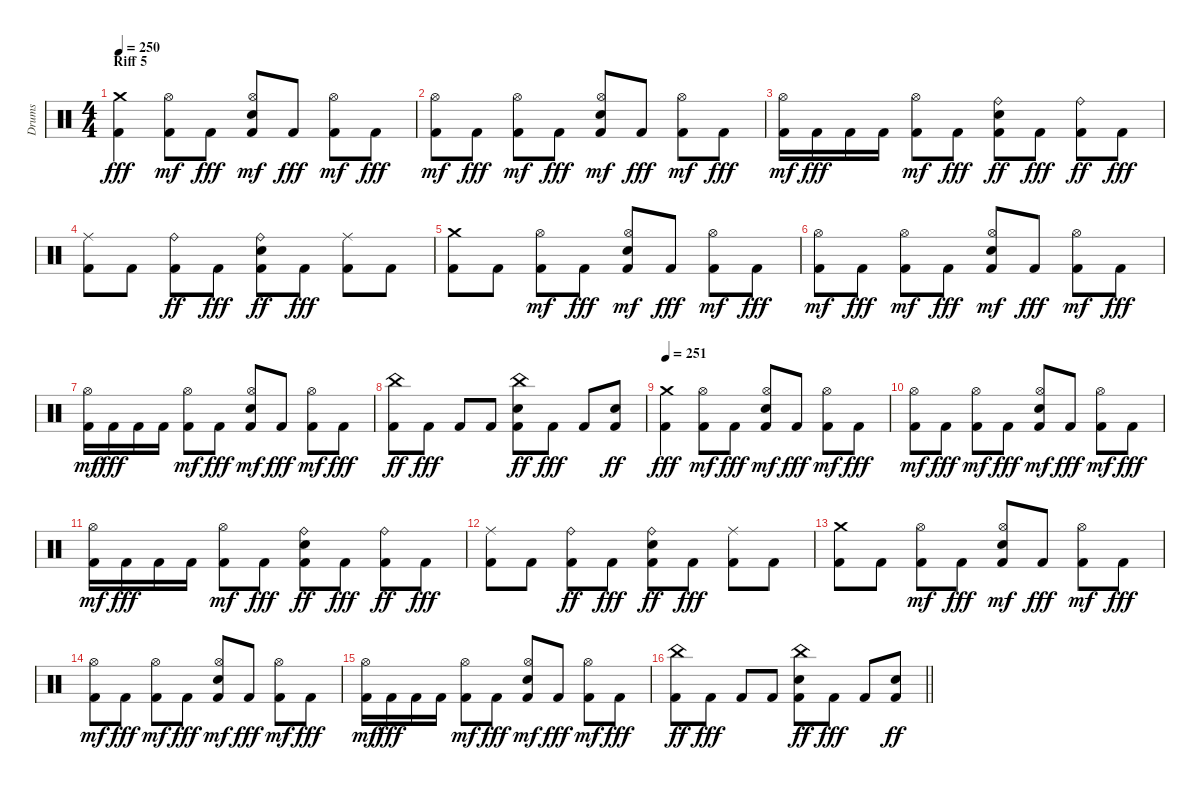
\track ("Drums" "Drums") {instrument percussion}
\staff {score}
\articulation defaults
\ts (4 4)
\section ("" "Riff 5")
\tempo 250
\clef neutral
\ks c
("Kick (hit) 2" "Crash medium (hit)").4{dy fff} ("Kick (hit) 2" "Hi-Hat (open)").8{dy mf} "Kick (hit) 2".8{dy fff} ("Kick (hit) 2" "Snare (hit) 2" "Hi-Hat (open)").8{dy mf} "Kick (hit) 2".8{dy fff} ("Kick (hit) 2" "Hi-Hat (open)").8{dy mf} "Kick (hit) 2".8{dy fff} |
("Kick (hit) 2" "Hi-Hat (open)").8{dy mf} "Kick (hit) 2".8{dy fff} ("Kick (hit) 2" "Hi-Hat (open)").8{dy mf} "Kick (hit) 2".8{dy fff} ("Kick (hit) 2" "Snare (hit) 2" "Hi-Hat (open)").8{dy mf} "Kick (hit) 2".8{dy fff} ("Kick (hit) 2" "Hi-Hat (open)").8{dy mf} "Kick (hit) 2".8{dy fff} |
("Kick (hit) 2" "Hi-Hat (open)").16{dy mf} "Kick (hit) 2".16{dy fff} "Kick (hit) 2".16 "Kick (hit) 2".16 ("Kick (hit) 2" "Hi-Hat (open)").8{dy mf} "Kick (hit) 2".8{dy fff} ("Kick (hit) 2" "Snare (hit) 2" "Ride (bell)").8{dy ff} "Kick (hit) 2".8{dy fff} ("Kick (hit) 2" "Ride (bell)").8{dy ff} "Kick (hit) 2".8{dy fff} |
("Kick (hit) 2" "Ride (middle)").8 "Kick (hit) 2".8 ("Kick (hit) 2" "Ride (bell)").8{dy ff} "Kick (hit) 2".8{dy fff} ("Kick (hit) 2" "Snare (hit) 2" "Ride (bell)").8{dy ff} "Kick (hit) 2".8{dy fff} ("Kick (hit) 2" "Ride (middle)").8 "Kick (hit) 2".8 |
("Kick (hit) 2" "Crash medium (hit)").8 "Kick (hit) 2".8 ("Kick (hit) 2" "Hi-Hat (open)").8{dy mf} "Kick (hit) 2".8{dy fff} ("Kick (hit) 2" "Snare (hit) 2" "Hi-Hat (open)").8{dy mf} "Kick (hit) 2".8{dy fff} ("Kick (hit) 2" "Hi-Hat (open)").8{dy mf} "Kick (hit) 2".8{dy fff} |
("Kick (hit) 2" "Hi-Hat (open)").8{dy mf} "Kick (hit) 2".8{dy fff} ("Kick (hit) 2" "Hi-Hat (open)").8{dy mf} "Kick (hit) 2".8{dy fff} ("Kick (hit) 2" "Snare (hit) 2" "Hi-Hat (open)").8{dy mf} "Kick (hit) 2".8{dy fff} ("Kick (hit) 2" "Hi-Hat (open)").8{dy mf} "Kick (hit) 2".8{dy fff} |
("Kick (hit) 2" "Hi-Hat (open)").16{dy mf} "Kick (hit) 2".16{dy fff} "Kick (hit) 2".16 "Kick (hit) 2".16 ("Kick (hit) 2" "Hi-Hat (open)").8{dy mf} "Kick (hit) 2".8{dy fff} ("Kick (hit) 2" "Snare (hit) 2" "Hi-Hat (open)").8{dy mf} "Kick (hit) 2".8{dy fff} ("Kick (hit) 2" "Hi-Hat (open)").8{dy mf} "Kick (hit) 2".8{dy fff} |
("Kick (hit) 2" "China (hit)").8{dy ff} "Kick (hit) 2".8{dy fff} "Kick (hit) 2".8 "Kick (hit) 2".8 ("Kick (hit) 2" "Snare (hit) 2" "China (hit)").8{dy ff} "Kick (hit) 2".8{dy fff} "Kick (hit) 2".8 ("Kick (hit) 2" "Snare (hit) 2").8{dy ff} |
\tempo 251
("Kick (hit) 2" "Crash medium (hit)").4{dy fff} ("Kick (hit) 2" "Hi-Hat (open)").8{dy mf} "Kick (hit) 2".8{dy fff} ("Kick (hit) 2" "Snare (hit) 2" "Hi-Hat (open)").8{dy mf} "Kick (hit) 2".8{dy fff} ("Kick (hit) 2" "Hi-Hat (open)").8{dy mf} "Kick (hit) 2".8{dy fff} |
("Kick (hit) 2" "Hi-Hat (open)").8{dy mf} "Kick (hit) 2".8{dy fff} ("Kick (hit) 2" "Hi-Hat (open)").8{dy mf} "Kick (hit) 2".8{dy fff} ("Kick (hit) 2" "Snare (hit) 2" "Hi-Hat (open)").8{dy mf} "Kick (hit) 2".8{dy fff} ("Kick (hit) 2" "Hi-Hat (open)").8{dy mf} "Kick (hit) 2".8{dy fff} |
("Kick (hit) 2" "Hi-Hat (open)").16{dy mf} "Kick (hit) 2".16{dy fff} "Kick (hit) 2".16 "Kick (hit) 2".16 ("Kick (hit) 2" "Hi-Hat (open)").8{dy mf} "Kick (hit) 2".8{dy fff} ("Kick (hit) 2" "Snare (hit) 2" "Ride (bell)").8{dy ff} "Kick (hit) 2".8{dy fff} ("Kick (hit) 2" "Ride (bell)").8{dy ff} "Kick (hit) 2".8{dy fff} |
("Kick (hit) 2" "Ride (middle)").8 "Kick (hit) 2".8 ("Kick (hit) 2" "Ride (bell)").8{dy ff} "Kick (hit) 2".8{dy fff} ("Kick (hit) 2" "Snare (hit) 2" "Ride (bell)").8{dy ff} "Kick (hit) 2".8{dy fff} ("Kick (hit) 2" "Ride (middle)").8 "Kick (hit) 2".8 |
("Kick (hit) 2" "Crash medium (hit)").8 "Kick (hit) 2".8 ("Kick (hit) 2" "Hi-Hat (open)").8{dy mf} "Kick (hit) 2".8{dy fff} ("Kick (hit) 2" "Snare (hit) 2" "Hi-Hat (open)").8{dy mf} "Kick (hit) 2".8{dy fff} ("Kick (hit) 2" "Hi-Hat (open)").8{dy mf} "Kick (hit) 2".8{dy fff} |
("Kick (hit) 2" "Hi-Hat (open)").8{dy mf} "Kick (hit) 2".8{dy fff} ("Kick (hit) 2" "Hi-Hat (open)").8{dy mf} "Kick (hit) 2".8{dy fff} ("Kick (hit) 2" "Snare (hit) 2" "Hi-Hat (open)").8{dy mf} "Kick (hit) 2".8{dy fff} ("Kick (hit) 2" "Hi-Hat (open)").8{dy mf} "Kick (hit) 2".8{dy fff} |
("Kick (hit) 2" "Hi-Hat (open)").16{dy mf} "Kick (hit) 2".16{dy fff} "Kick (hit) 2".16 "Kick (hit) 2".16 ("Kick (hit) 2" "Hi-Hat (open)").8{dy mf} "Kick (hit) 2".8{dy fff} ("Kick (hit) 2" "Snare (hit) 2" "Hi-Hat (open)").8{dy mf} "Kick (hit) 2".8{dy fff} ("Kick (hit) 2" "Hi-Hat (open)").8{dy mf} "Kick (hit) 2".8{dy fff} |
\barLineRight lightlight
("Kick (hit) 2" "China (hit)").8{dy ff} "Kick (hit) 2".8{dy fff} "Kick (hit) 2".8 "Kick (hit) 2".8 ("Kick (hit) 2" "Snare (hit) 2" "China (hit)").8{dy ff} "Kick (hit) 2".8{dy fff} "Kick (hit) 2".8 ("Kick (hit) 2" "Snare (hit) 2").8{dy ff}
